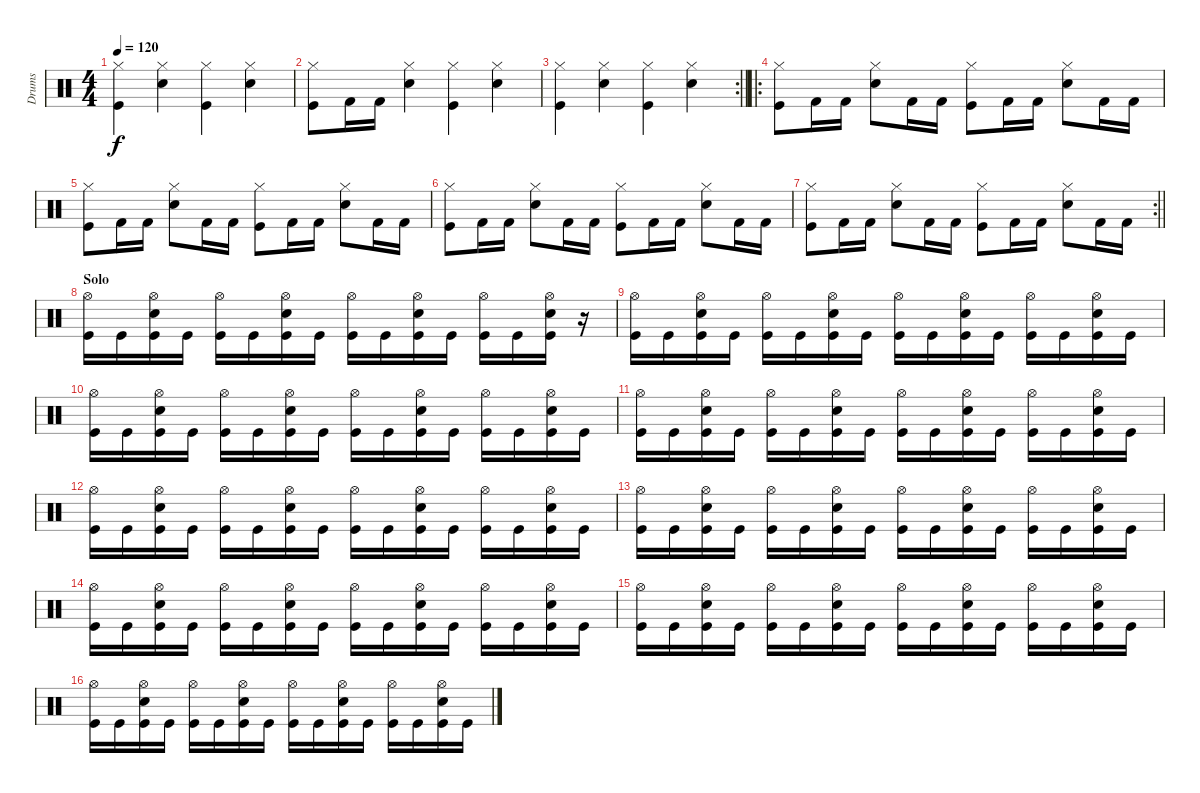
\track ("Drums" "Drums") {instrument percussion}
\staff {score}
\articulation defaults
\ts (4 4)
\tempo 120
\clef neutral
\ks c
("Hi-Hat (closed)" "Kick (hit)").4{dy f} ("Hi-Hat (closed)" "Snare (hit) 2").4 ("Hi-Hat (closed)" "Kick (hit)").4 ("Hi-Hat (closed)" "Snare (hit) 2").4 |
("Hi-Hat (closed)" "Kick (hit)").8 "Kick (hit) 2".16 "Kick (hit) 2".16 ("Hi-Hat (closed)" "Snare (hit) 2").4 ("Hi-Hat (closed)" "Kick (hit)").4 ("Hi-Hat (closed)" "Snare (hit) 2").4 |
\rc 2
\barLineRight lightlight
("Hi-Hat (closed)" "Kick (hit)").4 ("Hi-Hat (closed)" "Snare (hit) 2").4 ("Hi-Hat (closed)" "Kick (hit)").4 ("Hi-Hat (closed)" "Snare (hit) 2").4 |
\ro
("Hi-Hat (closed)" "Kick (hit)").8 "Kick (hit) 2".16 "Kick (hit) 2".16 ("Hi-Hat (closed)" "Snare (hit) 2").8 "Kick (hit) 2".16 "Kick (hit) 2".16 ("Hi-Hat (closed)" "Kick (hit)").8 "Kick (hit) 2".16 "Kick (hit) 2".16 ("Hi-Hat (closed)" "Snare (hit) 2").8 "Kick (hit) 2".16 "Kick (hit) 2".16 |
("Hi-Hat (closed)" "Kick (hit)").8 "Kick (hit) 2".16 "Kick (hit) 2".16 ("Hi-Hat (closed)" "Snare (hit) 2").8 "Kick (hit) 2".16 "Kick (hit) 2".16 ("Hi-Hat (closed)" "Kick (hit)").8 "Kick (hit) 2".16 "Kick (hit) 2".16 ("Hi-Hat (closed)" "Snare (hit) 2").8 "Kick (hit) 2".16 "Kick (hit) 2".16 |
("Hi-Hat (closed)" "Kick (hit)").8 "Kick (hit) 2".16 "Kick (hit) 2".16 ("Hi-Hat (closed)" "Snare (hit) 2").8 "Kick (hit) 2".16 "Kick (hit) 2".16 ("Hi-Hat (closed)" "Kick (hit)").8 "Kick (hit) 2".16 "Kick (hit) 2".16 ("Hi-Hat (closed)" "Snare (hit) 2").8 "Kick (hit) 2".16 "Kick (hit) 2".16 |
\rc 2
\barLineRight lightlight
("Hi-Hat (closed)" "Kick (hit)").8 "Kick (hit) 2".16 "Kick (hit) 2".16 ("Hi-Hat (closed)" "Snare (hit) 2").8 "Kick (hit) 2".16 "Kick (hit) 2".16 ("Hi-Hat (closed)" "Kick (hit)").8 "Kick (hit) 2".16 "Kick (hit) 2".16 ("Hi-Hat (closed)" "Snare (hit) 2").8 "Kick (hit) 2".16 "Kick (hit) 2".16 |
\section ("" "Solo")
("Hi-Hat (open)" "Kick (hit)").16 "Kick (hit)".16 ("Hi-Hat (open)" "Snare (hit) 2" "Kick (hit)").16 "Kick (hit)".16 ("Hi-Hat (open)" "Kick (hit)").16 "Kick (hit)".16 ("Hi-Hat (open)" "Snare (hit) 2" "Kick (hit)").16 "Kick (hit)".16 ("Hi-Hat (open)" "Kick (hit)").16 "Kick (hit)".16 ("Hi-Hat (open)" "Snare (hit) 2" "Kick (hit)").16 "Kick (hit)".16 ("Hi-Hat (open)" "Kick (hit)").16 "Kick (hit)".16 ("Hi-Hat (open)" "Snare (hit) 2" "Kick (hit)").16 r.16 |
("Hi-Hat (open)" "Kick (hit)").16 "Kick (hit)".16 ("Hi-Hat (open)" "Snare (hit) 2" "Kick (hit)").16 "Kick (hit)".16 ("Hi-Hat (open)" "Kick (hit)").16 "Kick (hit)".16 ("Hi-Hat (open)" "Snare (hit) 2" "Kick (hit)").16 "Kick (hit)".16 ("Hi-Hat (open)" "Kick (hit)").16 "Kick (hit)".16 ("Hi-Hat (open)" "Snare (hit) 2" "Kick (hit)").16 "Kick (hit)".16 ("Hi-Hat (open)" "Kick (hit)").16 "Kick (hit)".16 ("Hi-Hat (open)" "Snare (hit) 2" "Kick (hit)").16 "Kick (hit)".16 |
("Hi-Hat (open)" "Kick (hit)").16 "Kick (hit)".16 ("Hi-Hat (open)" "Snare (hit) 2" "Kick (hit)").16 "Kick (hit)".16 ("Hi-Hat (open)" "Kick (hit)").16 "Kick (hit)".16 ("Hi-Hat (open)" "Snare (hit) 2" "Kick (hit)").16 "Kick (hit)".16 ("Hi-Hat (open)" "Kick (hit)").16 "Kick (hit)".16 ("Hi-Hat (open)" "Snare (hit) 2" "Kick (hit)").16 "Kick (hit)".16 ("Hi-Hat (open)" "Kick (hit)").16 "Kick (hit)".16 ("Hi-Hat (open)" "Snare (hit) 2" "Kick (hit)").16 "Kick (hit)".16 |
("Hi-Hat (open)" "Kick (hit)").16 "Kick (hit)".16 ("Hi-Hat (open)" "Snare (hit) 2" "Kick (hit)").16 "Kick (hit)".16 ("Hi-Hat (open)" "Kick (hit)").16 "Kick (hit)".16 ("Hi-Hat (open)" "Snare (hit) 2" "Kick (hit)").16 "Kick (hit)".16 ("Hi-Hat (open)" "Kick (hit)").16 "Kick (hit)".16 ("Hi-Hat (open)" "Snare (hit) 2" "Kick (hit)").16 "Kick (hit)".16 ("Hi-Hat (open)" "Kick (hit)").16 "Kick (hit)".16 ("Hi-Hat (open)" "Snare (hit) 2" "Kick (hit)").16 "Kick (hit)".16 |
("Hi-Hat (open)" "Kick (hit)").16 "Kick (hit)".16 ("Hi-Hat (open)" "Snare (hit) 2" "Kick (hit)").16 "Kick (hit)".16 ("Hi-Hat (open)" "Kick (hit)").16 "Kick (hit)".16 ("Hi-Hat (open)" "Snare (hit) 2" "Kick (hit)").16 "Kick (hit)".16 ("Hi-Hat (open)" "Kick (hit)").16 "Kick (hit)".16 ("Hi-Hat (open)" "Snare (hit) 2" "Kick (hit)").16 "Kick (hit)".16 ("Hi-Hat (open)" "Kick (hit)").16 "Kick (hit)".16 ("Hi-Hat (open)" "Snare (hit) 2" "Kick (hit)").16 "Kick (hit)".16 |
("Hi-Hat (open)" "Kick (hit)").16 "Kick (hit)".16 ("Hi-Hat (open)" "Snare (hit) 2" "Kick (hit)").16 "Kick (hit)".16 ("Hi-Hat (open)" "Kick (hit)").16 "Kick (hit)".16 ("Hi-Hat (open)" "Snare (hit) 2" "Kick (hit)").16 "Kick (hit)".16 ("Hi-Hat (open)" "Kick (hit)").16 "Kick (hit)".16 ("Hi-Hat (open)" "Snare (hit) 2" "Kick (hit)").16 "Kick (hit)".16 ("Hi-Hat (open)" "Kick (hit)").16 "Kick (hit)".16 ("Hi-Hat (open)" "Snare (hit) 2" "Kick (hit)").16 "Kick (hit)".16 |
("Hi-Hat (open)" "Kick (hit)").16 "Kick (hit)".16 ("Hi-Hat (open)" "Snare (hit) 2" "Kick (hit)").16 "Kick (hit)".16 ("Hi-Hat (open)" "Kick (hit)").16 "Kick (hit)".16 ("Hi-Hat (open)" "Snare (hit) 2" "Kick (hit)").16 "Kick (hit)".16 ("Hi-Hat (open)" "Kick (hit)").16 "Kick (hit)".16 ("Hi-Hat (open)" "Snare (hit) 2" "Kick (hit)").16 "Kick (hit)".16 ("Hi-Hat (open)" "Kick (hit)").16 "Kick (hit)".16 ("Hi-Hat (open)" "Snare (hit) 2" "Kick (hit)").16 "Kick (hit)".16 |
("Hi-Hat (open)" "Kick (hit)").16 "Kick (hit)".16 ("Hi-Hat (open)" "Snare (hit) 2" "Kick (hit)").16 "Kick (hit)".16 ("Hi-Hat (open)" "Kick (hit)").16 "Kick (hit)".16 ("Hi-Hat (open)" "Snare (hit) 2" "Kick (hit)").16 "Kick (hit)".16 ("Hi-Hat (open)" "Kick (hit)").16 "Kick (hit)".16 ("Hi-Hat (open)" "Snare (hit) 2" "Kick (hit)").16 "Kick (hit)".16 ("Hi-Hat (open)" "Kick (hit)").16 "Kick (hit)".16 ("Hi-Hat (open)" "Snare (hit) 2" "Kick (hit)").16 "Kick (hit)".16 |
("Hi-Hat (open)" "Kick (hit)").16 "Kick (hit)".16 ("Hi-Hat (open)" "Snare (hit) 2" "Kick (hit)").16 "Kick (hit)".16 ("Hi-Hat (open)" "Kick (hit)").16 "Kick (hit)".16 ("Hi-Hat (open)" "Snare (hit) 2" "Kick (hit)").16 "Kick (hit)".16 ("Hi-Hat (open)" "Kick (hit)").16 "Kick (hit)".16 ("Hi-Hat (open)" "Snare (hit) 2" "Kick (hit)").16 "Kick (hit)".16 ("Hi-Hat (open)" "Kick (hit)").16 "Kick (hit)".16 ("Hi-Hat (open)" "Snare (hit) 2" "Kick (hit)").16 "Kick (hit)".16
